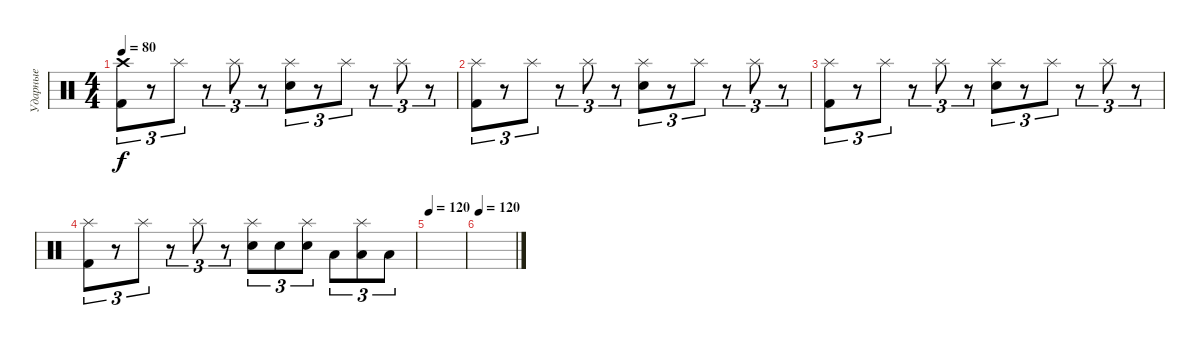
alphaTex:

\track ("Ударные" "Ударные") {instrument percussion}
\staff {score}
\articulation defaults
\ts (4 4)
\tempo 80
\clef neutral
\ks c
("Crash high (hit)" "Kick (hit) 2").8{tu (3 2) dy f} r.8{tu (3 2)} "Splash (hit)".8{tu (3 2)} r.8{tu (3 2)} "Splash (hit)".8{tu (3 2)} r.8{tu (3 2)} ("Splash (hit)" "Electric Snare (hit)").8{tu (3 2)} r.8{tu (3 2)} "Splash (hit)".8{tu (3 2)} r.8{tu (3 2)} "Splash (hit)".8{tu (3 2)} r.8{tu (3 2)} |
("Splash (hit)" "Kick (hit) 2").8{tu (3 2)} r.8{tu (3 2)} "Splash (hit)".8{tu (3 2)} r.8{tu (3 2)} "Splash (hit)".8{tu (3 2)} r.8{tu (3 2)} ("Splash (hit)" "Electric Snare (hit)").8{tu (3 2)} r.8{tu (3 2)} "Splash (hit)".8{tu (3 2)} r.8{tu (3 2)} "Splash (hit)".8{tu (3 2)} r.8{tu (3 2)} |
("Splash (hit)" "Kick (hit) 2").8{tu (3 2)} r.8{tu (3 2)} "Splash (hit)".8{tu (3 2)} r.8{tu (3 2)} "Splash (hit)".8{tu (3 2)} r.8{tu (3 2)} ("Splash (hit)" "Electric Snare (hit)").8{tu (3 2)} r.8{tu (3 2)} "Splash (hit)".8{tu (3 2)} r.8{tu (3 2)} "Splash (hit)".8{tu (3 2)} r.8{tu (3 2)} |
("Splash (hit)" "Kick (hit) 2").8{tu (3 2)} r.8{tu (3 2)} "Splash (hit)".8{tu (3 2)} r.8{tu (3 2)} "Splash (hit)".8{tu (3 2)} r.8{tu (3 2)} ("Splash (hit)" "Electric Snare (hit)").8{tu (3 2)} "Electric Snare (hit)".8{tu (3 2)} ("Splash (hit)" "Electric Snare (hit)").8{tu (3 2)} "Low Tom (hit)".8{tu (3 2)} ("Splash (hit)" "Low Tom (hit)").8{tu (3 2)} "Low Tom (hit)".8{tu (3 2)} |
\tempo 120
|
\tempo 120
